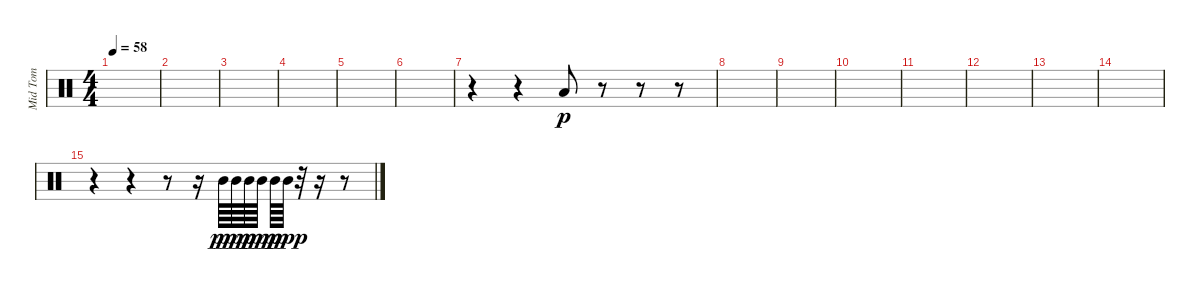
\track ("Mid Tom" "Mid Tom") {instrument percussion}
\staff {score}
\articulation defaults
\ts (4 4)
\tempo 58
\clef neutral
\ks c
|
|
|
|
|
|
r.4 r.4 "Low Tom (hit)".8{dy p} r.8 r.8 r.8 |
|
|
|
|
|
|
|
r.4 r.4 r.8 r.16 "Mid Tom (hit)".64{dy pp} "Mid Tom (hit)".64{dy ppp} "Mid Tom (hit)".64{dy pp} "Mid Tom (hit)".64{dy ppp} "Mid Tom (hit)".64{dy pp} "Mid Tom (hit)".64{dy ppp} r.32 r.16 r.8
